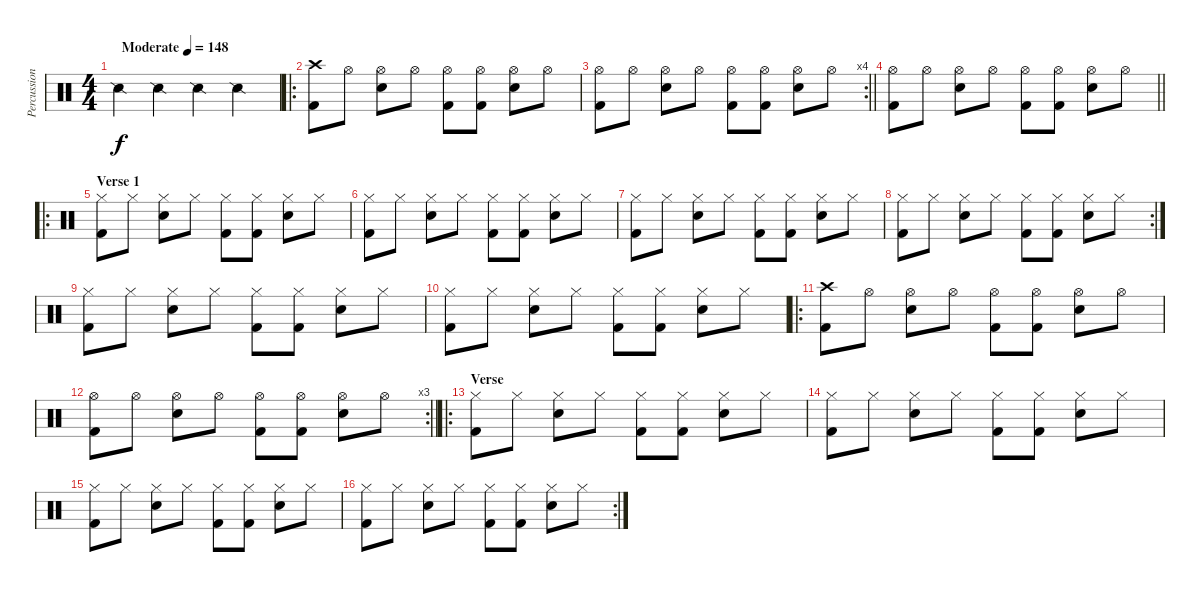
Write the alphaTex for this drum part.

\track ("Percussion" "Percussion") {instrument percussion}
\staff {score}
\articulation defaults
\ts (4 4)
\tempo (148 "Moderate")
\clef neutral
\ks c "Snare (side stick) 2".4{dy f} "Snare (side stick) 2".4 "Snare (side stick) 2".4 "Snare (side stick) 2".4
|
\ro
("Crash high (hit)" "Kick (hit) 2").8 "Hi-Hat (open)".8 ("Hi-Hat (open)" "Snare (hit) 2").8 "Hi-Hat (open)".8 ("Hi-Hat (open)" "Kick (hit) 2").8 ("Hi-Hat (open)" "Kick (hit) 2").8 ("Hi-Hat (open)" "Snare (hit) 2").8 "Hi-Hat (open)".8 |
\rc 4
\barLineRight lightlight
("Hi-Hat (open)" "Kick (hit) 2").8 "Hi-Hat (open)".8 ("Hi-Hat (open)" "Snare (hit) 2").8 "Hi-Hat (open)".8 ("Hi-Hat (open)" "Kick (hit) 2").8 ("Hi-Hat (open)" "Kick (hit) 2").8 ("Hi-Hat (open)" "Snare (hit) 2").8 "Hi-Hat (open)".8 |
\section ("" "")
\barLineRight lightlight
("Hi-Hat (open)" "Kick (hit) 2").8 "Hi-Hat (open)".8 ("Hi-Hat (open)" "Snare (hit) 2").8 "Hi-Hat (open)".8 ("Hi-Hat (open)" "Kick (hit) 2").8 ("Hi-Hat (open)" "Kick (hit) 2").8 ("Hi-Hat (open)" "Snare (hit) 2").8 "Hi-Hat (open)".8 |
\ro
\section ("" "Verse 1")
("Hi-Hat (closed)" "Kick (hit) 2").8 "Hi-Hat (closed)".8 ("Hi-Hat (closed)" "Snare (hit) 2").8 "Hi-Hat (closed)".8 ("Hi-Hat (closed)" "Kick (hit) 2").8 ("Hi-Hat (closed)" "Kick (hit) 2").8 ("Hi-Hat (closed)" "Snare (hit) 2").8 "Hi-Hat (closed)".8 |
("Hi-Hat (closed)" "Kick (hit) 2").8 "Hi-Hat (closed)".8 ("Hi-Hat (closed)" "Snare (hit) 2").8 "Hi-Hat (closed)".8 ("Hi-Hat (closed)" "Kick (hit) 2").8 ("Hi-Hat (closed)" "Kick (hit) 2").8 ("Hi-Hat (closed)" "Snare (hit) 2").8 "Hi-Hat (closed)".8 |
("Hi-Hat (closed)" "Kick (hit) 2").8 "Hi-Hat (closed)".8 ("Hi-Hat (closed)" "Snare (hit) 2").8 "Hi-Hat (closed)".8 ("Hi-Hat (closed)" "Kick (hit) 2").8 ("Hi-Hat (closed)" "Kick (hit) 2").8 ("Hi-Hat (closed)" "Snare (hit) 2").8 "Hi-Hat (closed)".8 |
\rc 2
("Hi-Hat (closed)" "Kick (hit) 2").8 "Hi-Hat (closed)".8 ("Hi-Hat (closed)" "Snare (hit) 2").8 "Hi-Hat (closed)".8 ("Hi-Hat (closed)" "Kick (hit) 2").8 ("Hi-Hat (closed)" "Kick (hit) 2").8 ("Hi-Hat (closed)" "Snare (hit) 2").8 "Hi-Hat (closed)".8 |
("Hi-Hat (closed)" "Kick (hit) 2").8 "Hi-Hat (closed)".8 ("Hi-Hat (closed)" "Snare (hit) 2").8 "Hi-Hat (closed)".8 ("Hi-Hat (closed)" "Kick (hit) 2").8 ("Hi-Hat (closed)" "Kick (hit) 2").8 ("Hi-Hat (closed)" "Snare (hit) 2").8 "Hi-Hat (closed)".8 |
("Hi-Hat (closed)" "Kick (hit) 2").8 "Hi-Hat (closed)".8 ("Hi-Hat (closed)" "Snare (hit) 2").8 "Hi-Hat (closed)".8 ("Hi-Hat (closed)" "Kick (hit) 2").8 ("Hi-Hat (closed)" "Kick (hit) 2").8 ("Hi-Hat (closed)" "Snare (hit) 2").8 "Hi-Hat (closed)".8 |
\ro
("Crash high (hit)" "Kick (hit) 2").8 "Hi-Hat (open)".8 ("Hi-Hat (open)" "Snare (hit) 2").8 "Hi-Hat (open)".8 ("Hi-Hat (open)" "Kick (hit) 2").8 ("Hi-Hat (open)" "Kick (hit) 2").8 ("Hi-Hat (open)" "Snare (hit) 2").8 "Hi-Hat (open)".8 |
\rc 3
\barLineRight lightlight
("Hi-Hat (open)" "Kick (hit) 2").8 "Hi-Hat (open)".8 ("Hi-Hat (open)" "Snare (hit) 2").8 "Hi-Hat (open)".8 ("Hi-Hat (open)" "Kick (hit) 2").8 ("Hi-Hat (open)" "Kick (hit) 2").8 ("Hi-Hat (open)" "Snare (hit) 2").8 "Hi-Hat (open)".8 |
\ro
\section ("" "Verse")
("Hi-Hat (closed)" "Kick (hit) 2").8 "Hi-Hat (closed)".8 ("Hi-Hat (closed)" "Snare (hit) 2").8 "Hi-Hat (closed)".8 ("Hi-Hat (closed)" "Kick (hit) 2").8 ("Hi-Hat (closed)" "Kick (hit) 2").8 ("Hi-Hat (closed)" "Snare (hit) 2").8 "Hi-Hat (closed)".8 |
("Hi-Hat (closed)" "Kick (hit) 2").8 "Hi-Hat (closed)".8 ("Hi-Hat (closed)" "Snare (hit) 2").8 "Hi-Hat (closed)".8 ("Hi-Hat (closed)" "Kick (hit) 2").8 ("Hi-Hat (closed)" "Kick (hit) 2").8 ("Hi-Hat (closed)" "Snare (hit) 2").8 "Hi-Hat (closed)".8 |
("Hi-Hat (closed)" "Kick (hit) 2").8 "Hi-Hat (closed)".8 ("Hi-Hat (closed)" "Snare (hit) 2").8 "Hi-Hat (closed)".8 ("Hi-Hat (closed)" "Kick (hit) 2").8 ("Hi-Hat (closed)" "Kick (hit) 2").8 ("Hi-Hat (closed)" "Snare (hit) 2").8 "Hi-Hat (closed)".8 |
\rc 2
("Hi-Hat (closed)" "Kick (hit) 2").8 "Hi-Hat (closed)".8 ("Hi-Hat (closed)" "Snare (hit) 2").8 "Hi-Hat (closed)".8 ("Hi-Hat (closed)" "Kick (hit) 2").8 ("Hi-Hat (closed)" "Kick (hit) 2").8 ("Hi-Hat (closed)" "Snare (hit) 2").8 "Hi-Hat (closed)".8
